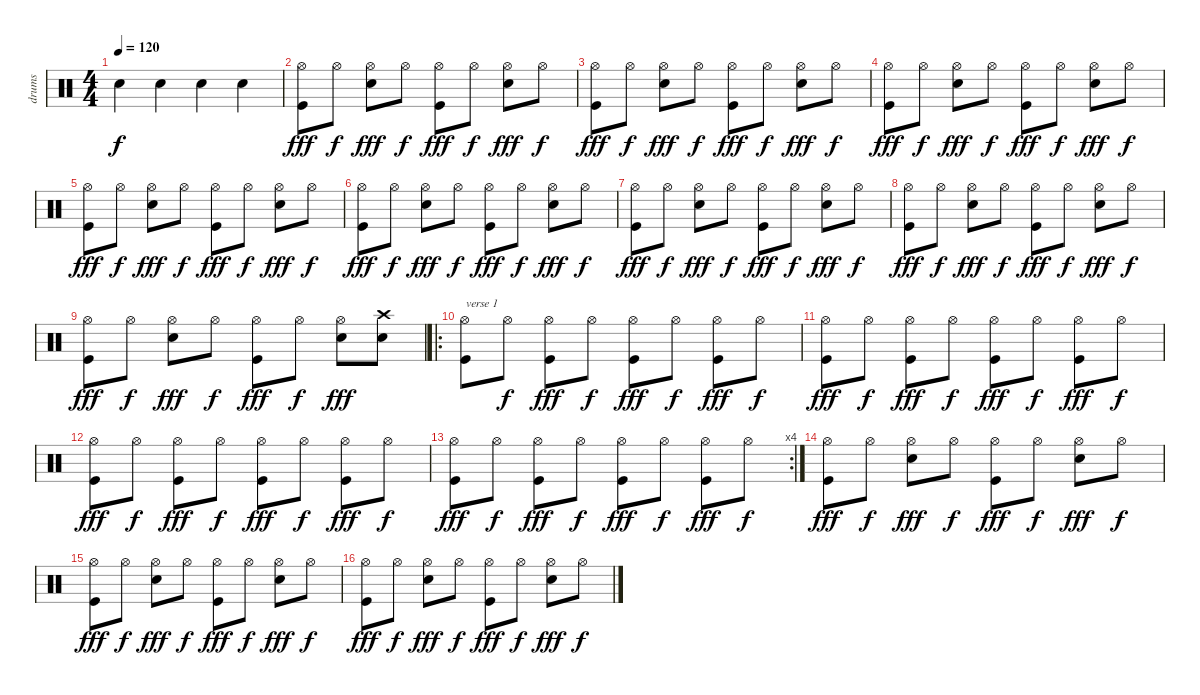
\track ("drums" "drums") {instrument percussion}
\staff {score}
\articulation defaults
\ts (4 4)
\tempo 120
\clef neutral
\ks c "Snare (hit) 2".4{dy f} "Snare (hit) 2".4 "Snare (hit) 2".4 "Snare (hit) 2".4
|
("Hi-Hat (open)" "Kick (hit)").8{dy fff} "Hi-Hat (open)".8{dy f} ("Hi-Hat (open)" "Snare (hit) 2").8{dy fff} "Hi-Hat (open)".8{dy f} ("Hi-Hat (open)" "Kick (hit)").8{dy fff} "Hi-Hat (open)".8{dy f} ("Hi-Hat (open)" "Snare (hit) 2").8{dy fff} "Hi-Hat (open)".8{dy f} |
("Hi-Hat (open)" "Kick (hit)").8{dy fff} "Hi-Hat (open)".8{dy f} ("Hi-Hat (open)" "Snare (hit) 2").8{dy fff} "Hi-Hat (open)".8{dy f} ("Hi-Hat (open)" "Kick (hit)").8{dy fff} "Hi-Hat (open)".8{dy f} ("Hi-Hat (open)" "Snare (hit) 2").8{dy fff} "Hi-Hat (open)".8{dy f} |
("Hi-Hat (open)" "Kick (hit)").8{dy fff} "Hi-Hat (open)".8{dy f} ("Hi-Hat (open)" "Snare (hit) 2").8{dy fff} "Hi-Hat (open)".8{dy f} ("Hi-Hat (open)" "Kick (hit)").8{dy fff} "Hi-Hat (open)".8{dy f} ("Hi-Hat (open)" "Snare (hit) 2").8{dy fff} "Hi-Hat (open)".8{dy f} |
("Hi-Hat (open)" "Kick (hit)").8{dy fff} "Hi-Hat (open)".8{dy f} ("Hi-Hat (open)" "Snare (hit) 2").8{dy fff} "Hi-Hat (open)".8{dy f} ("Hi-Hat (open)" "Kick (hit)").8{dy fff} "Hi-Hat (open)".8{dy f} ("Hi-Hat (open)" "Snare (hit) 2").8{dy fff} "Hi-Hat (open)".8{dy f} |
("Hi-Hat (open)" "Kick (hit)").8{dy fff} "Hi-Hat (open)".8{dy f} ("Hi-Hat (open)" "Snare (hit) 2").8{dy fff} "Hi-Hat (open)".8{dy f} ("Hi-Hat (open)" "Kick (hit)").8{dy fff} "Hi-Hat (open)".8{dy f} ("Hi-Hat (open)" "Snare (hit) 2").8{dy fff} "Hi-Hat (open)".8{dy f} |
("Hi-Hat (open)" "Kick (hit)").8{dy fff} "Hi-Hat (open)".8{dy f} ("Hi-Hat (open)" "Snare (hit) 2").8{dy fff} "Hi-Hat (open)".8{dy f} ("Hi-Hat (open)" "Kick (hit)").8{dy fff} "Hi-Hat (open)".8{dy f} ("Hi-Hat (open)" "Snare (hit) 2").8{dy fff} "Hi-Hat (open)".8{dy f} |
("Hi-Hat (open)" "Kick (hit)").8{dy fff} "Hi-Hat (open)".8{dy f} ("Hi-Hat (open)" "Snare (hit) 2").8{dy fff} "Hi-Hat (open)".8{dy f} ("Hi-Hat (open)" "Kick (hit)").8{dy fff} "Hi-Hat (open)".8{dy f} ("Hi-Hat (open)" "Snare (hit) 2").8{dy fff} "Hi-Hat (open)".8{dy f} |
("Hi-Hat (open)" "Kick (hit)").8{dy fff} "Hi-Hat (open)".8{dy f} ("Hi-Hat (open)" "Snare (hit) 2").8{dy fff} "Hi-Hat (open)".8{dy f} ("Hi-Hat (open)" "Kick (hit)").8{dy fff} "Hi-Hat (open)".8{dy f} ("Hi-Hat (open)" "Snare (hit) 2").8{dy fff} ("Crash high (hit)" "Snare (hit) 2").8 |
\ro
("Hi-Hat (open)" "Kick (hit)").8{txt "verse 1"} "Hi-Hat (open)".8{dy f} ("Hi-Hat (open)" "Kick (hit)").8{dy fff} "Hi-Hat (open)".8{dy f} ("Hi-Hat (open)" "Kick (hit)").8{dy fff} "Hi-Hat (open)".8{dy f} ("Hi-Hat (open)" "Kick (hit)").8{dy fff} "Hi-Hat (open)".8{dy f} |
("Hi-Hat (open)" "Kick (hit)").8{dy fff} "Hi-Hat (open)".8{dy f} ("Hi-Hat (open)" "Kick (hit)").8{dy fff} "Hi-Hat (open)".8{dy f} ("Hi-Hat (open)" "Kick (hit)").8{dy fff} "Hi-Hat (open)".8{dy f} ("Hi-Hat (open)" "Kick (hit)").8{dy fff} "Hi-Hat (open)".8{dy f} |
("Hi-Hat (open)" "Kick (hit)").8{dy fff} "Hi-Hat (open)".8{dy f} ("Hi-Hat (open)" "Kick (hit)").8{dy fff} "Hi-Hat (open)".8{dy f} ("Hi-Hat (open)" "Kick (hit)").8{dy fff} "Hi-Hat (open)".8{dy f} ("Hi-Hat (open)" "Kick (hit)").8{dy fff} "Hi-Hat (open)".8{dy f} |
\rc 4
("Hi-Hat (open)" "Kick (hit)").8{dy fff} "Hi-Hat (open)".8{dy f} ("Hi-Hat (open)" "Kick (hit)").8{dy fff} "Hi-Hat (open)".8{dy f} ("Hi-Hat (open)" "Kick (hit)").8{dy fff} "Hi-Hat (open)".8{dy f} ("Hi-Hat (open)" "Kick (hit)").8{dy fff} "Hi-Hat (open)".8{dy f} |
("Hi-Hat (open)" "Kick (hit)").8{dy fff} "Hi-Hat (open)".8{dy f} ("Hi-Hat (open)" "Snare (hit) 2").8{dy fff} "Hi-Hat (open)".8{dy f} ("Hi-Hat (open)" "Kick (hit)").8{dy fff} "Hi-Hat (open)".8{dy f} ("Hi-Hat (open)" "Snare (hit) 2").8{dy fff} "Hi-Hat (open)".8{dy f} |
("Hi-Hat (open)" "Kick (hit)").8{dy fff} "Hi-Hat (open)".8{dy f} ("Hi-Hat (open)" "Snare (hit) 2").8{dy fff} "Hi-Hat (open)".8{dy f} ("Hi-Hat (open)" "Kick (hit)").8{dy fff} "Hi-Hat (open)".8{dy f} ("Hi-Hat (open)" "Snare (hit) 2").8{dy fff} "Hi-Hat (open)".8{dy f} |
("Hi-Hat (open)" "Kick (hit)").8{dy fff} "Hi-Hat (open)".8{dy f} ("Hi-Hat (open)" "Snare (hit) 2").8{dy fff} "Hi-Hat (open)".8{dy f} ("Hi-Hat (open)" "Kick (hit)").8{dy fff} "Hi-Hat (open)".8{dy f} ("Hi-Hat (open)" "Snare (hit) 2").8{dy fff} "Hi-Hat (open)".8{dy f}
